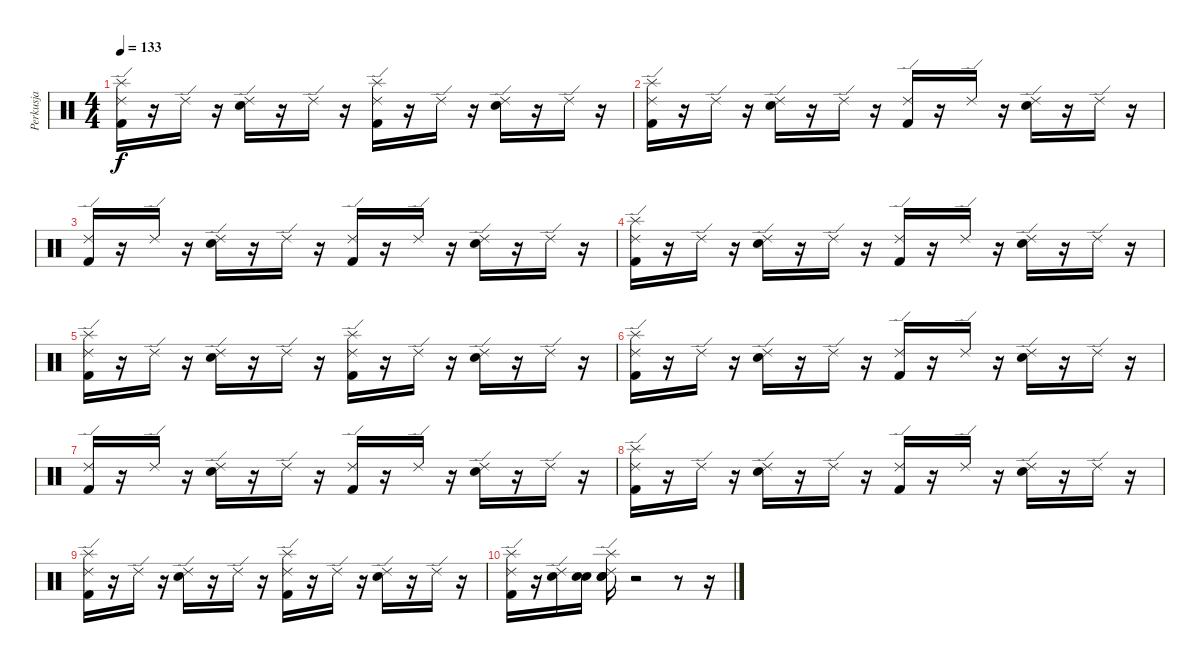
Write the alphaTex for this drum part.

\track ("Perkusja" "Perkusja") {instrument percussion}
\staff {score}
\articulation defaults
\ts (4 4)
\tempo 133
\clef neutral
\ks c
("Splash (hit)" "Ride (edge) 2" "Kick (hit) 2").16{dy f} r.16 "Ride (edge) 2".16 r.16 ("Snare (hit) 2" "Ride (edge) 2").16 r.16 "Ride (edge) 2".16 r.16 ("Splash (hit)" "Kick (hit) 2" "Ride (edge) 2").16 r.16 "Ride (edge) 2".16 r.16 ("Snare (hit) 2" "Ride (edge) 2").16 r.16 "Ride (edge) 2".16 r.16 |
("Splash (hit)" "Ride (edge) 2" "Kick (hit) 2").16 r.16 "Ride (edge) 2".16 r.16 ("Snare (hit) 2" "Ride (edge) 2").16 r.16 "Ride (edge) 2".16 r.16 ("Kick (hit) 2" "Ride (edge) 2").16 r.16 "Ride (edge) 2".16 r.16 ("Snare (hit) 2" "Ride (edge) 2").16 r.16 "Ride (edge) 2".16 r.16 |
("Ride (edge) 2" "Kick (hit) 2").16 r.16 "Ride (edge) 2".16 r.16 ("Snare (hit) 2" "Ride (edge) 2").16 r.16 "Ride (edge) 2".16 r.16 ("Kick (hit) 2" "Ride (edge) 2").16 r.16 "Ride (edge) 2".16 r.16 ("Snare (hit) 2" "Ride (edge) 2").16 r.16 "Ride (edge) 2".16 r.16 |
("Splash (hit)" "Ride (edge) 2" "Kick (hit) 2").16 r.16 "Ride (edge) 2".16 r.16 ("Snare (hit) 2" "Ride (edge) 2").16 r.16 "Ride (edge) 2".16 r.16 ("Kick (hit) 2" "Ride (edge) 2").16 r.16 "Ride (edge) 2".16 r.16 ("Snare (hit) 2" "Ride (edge) 2").16 r.16 "Ride (edge) 2".16 r.16 |
("Splash (hit)" "Ride (edge) 2" "Kick (hit) 2").16 r.16 "Ride (edge) 2".16 r.16 ("Snare (hit) 2" "Ride (edge) 2").16 r.16 "Ride (edge) 2".16 r.16 ("Splash (hit)" "Kick (hit) 2" "Ride (edge) 2").16 r.16 "Ride (edge) 2".16 r.16 ("Snare (hit) 2" "Ride (edge) 2").16 r.16 "Ride (edge) 2".16 r.16 |
("Splash (hit)" "Ride (edge) 2" "Kick (hit) 2").16 r.16 "Ride (edge) 2".16 r.16 ("Snare (hit) 2" "Ride (edge) 2").16 r.16 "Ride (edge) 2".16 r.16 ("Kick (hit) 2" "Ride (edge) 2").16 r.16 "Ride (edge) 2".16 r.16 ("Snare (hit) 2" "Ride (edge) 2").16 r.16 "Ride (edge) 2".16 r.16 |
("Ride (edge) 2" "Kick (hit) 2").16 r.16 "Ride (edge) 2".16 r.16 ("Snare (hit) 2" "Ride (edge) 2").16 r.16 "Ride (edge) 2".16 r.16 ("Kick (hit) 2" "Ride (edge) 2").16 r.16 "Ride (edge) 2".16 r.16 ("Snare (hit) 2" "Ride (edge) 2").16 r.16 "Ride (edge) 2".16 r.16 |
("Splash (hit)" "Ride (edge) 2" "Kick (hit) 2").16 r.16 "Ride (edge) 2".16 r.16 ("Snare (hit) 2" "Ride (edge) 2").16 r.16 "Ride (edge) 2".16 r.16 ("Kick (hit) 2" "Ride (edge) 2").16 r.16 "Ride (edge) 2".16 r.16 ("Snare (hit) 2" "Ride (edge) 2").16 r.16 "Ride (edge) 2".16 r.16 |
("Splash (hit)" "Ride (edge) 2" "Kick (hit) 2").16 r.16 "Ride (edge) 2".16 r.16 ("Snare (hit) 2" "Ride (edge) 2").16 r.16 "Ride (edge) 2".16 r.16 ("Splash (hit)" "Kick (hit) 2" "Ride (edge) 2").16 r.16 "Ride (edge) 2".16 r.16 ("Snare (hit) 2" "Ride (edge) 2").16 r.16 "Ride (edge) 2".16 r.16 |
("Splash (hit)" "Ride (edge) 2" "Kick (hit) 2").16 r.16 ("Snare (hit) 2" "Ride (edge) 2").16 ("Snare (hit)" "Snare (hit) 2").16 ("Snare (hit)" "Snare (hit) 2" "Splash (hit)" "Ride (edge) 2").16 r.2 r.8 r.16
